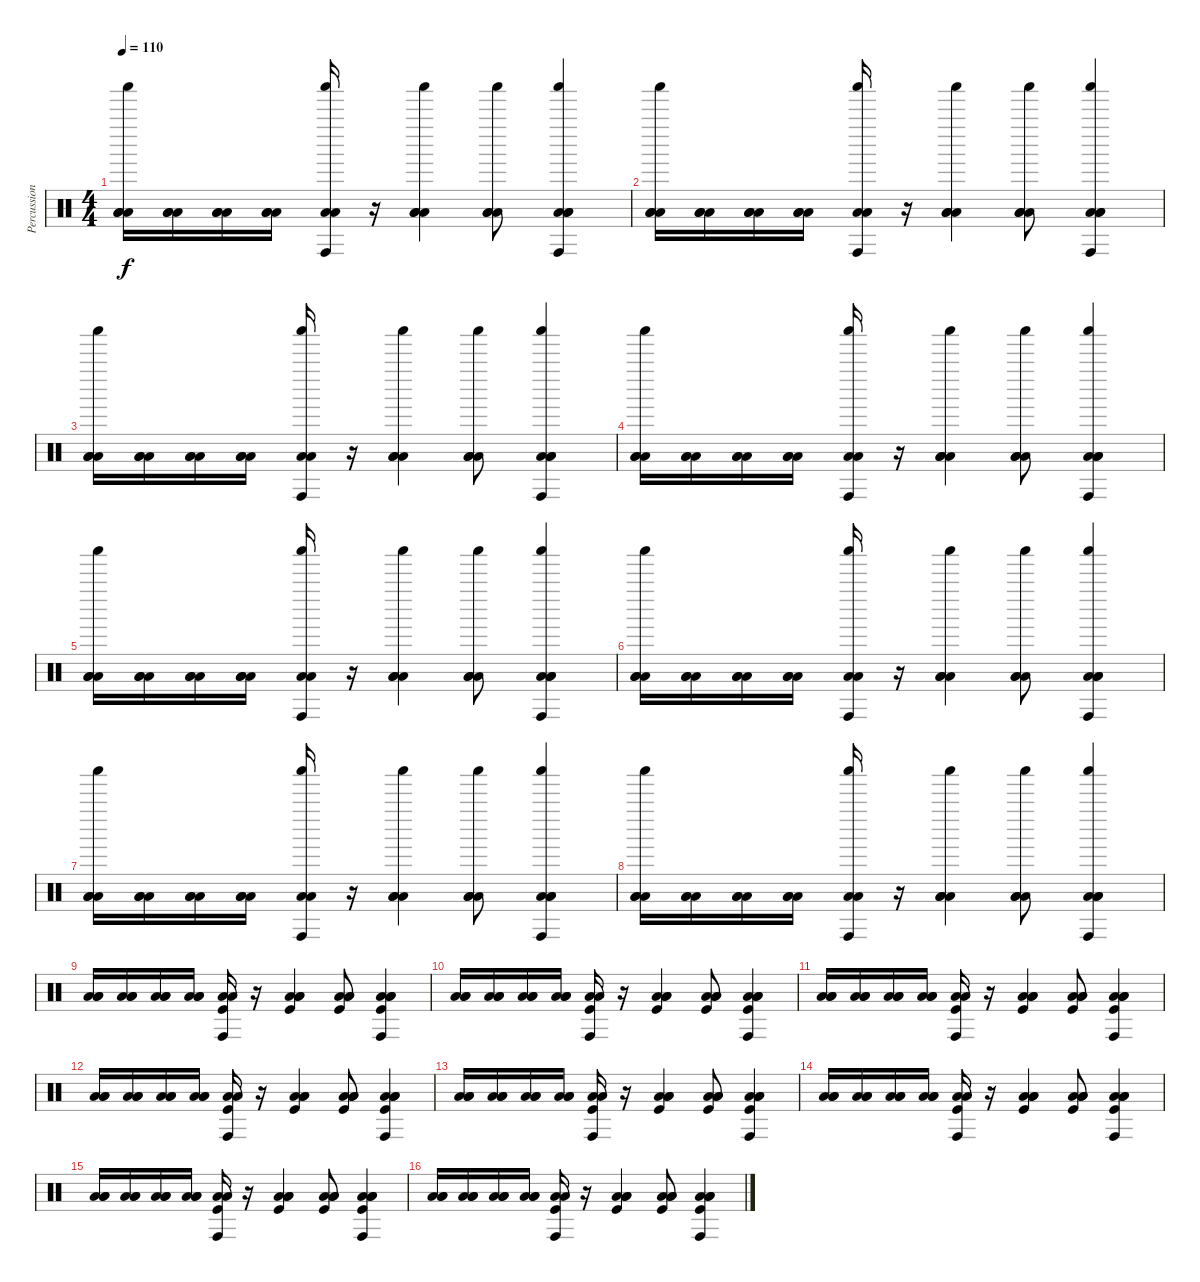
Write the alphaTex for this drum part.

\track ("Percussion 1" "Percussion") {instrument percussion}
\staff {score}
\articulation defaults
\ts (4 4)
\tempo 110
\clef neutral
\ks c
("Low Floor Tom (hit)" "Low Floor Tom (hit)" "Low Tom (hit)" "Shaker (hit)").16{dy f} ("Low Floor Tom (hit)" "Low Floor Tom (hit)" "Low Tom (hit)").16 ("Low Floor Tom (hit)" "Low Floor Tom (hit)" "Low Tom (hit)").16 ("Low Floor Tom (hit)" "Low Floor Tom (hit)" "Low Tom (hit)").16 ("Low Floor Tom (hit)" "Low Floor Tom (hit)" "Conga high (hit)" "Shaker (hit)").16 r.16 ("Low Floor Tom (hit)" "Low Floor Tom (hit)" "Low Tom (hit)" "Shaker (hit)").4 ("Low Floor Tom (hit)" "Low Tom (hit)" "Low Floor Tom (hit)" "Shaker (hit)").8 ("Low Floor Tom (hit)" "Low Tom (hit)" "Low Floor Tom (hit)" "Conga high (hit)" "Shaker (hit)").4 |
("Low Floor Tom (hit)" "Low Floor Tom (hit)" "Low Tom (hit)" "Shaker (hit)").16 ("Low Floor Tom (hit)" "Low Floor Tom (hit)" "Low Tom (hit)").16 ("Low Floor Tom (hit)" "Low Floor Tom (hit)" "Low Tom (hit)").16 ("Low Floor Tom (hit)" "Low Floor Tom (hit)" "Low Tom (hit)").16 ("Low Floor Tom (hit)" "Low Floor Tom (hit)" "Conga high (hit)" "Shaker (hit)").16 r.16 ("Low Floor Tom (hit)" "Low Floor Tom (hit)" "Low Tom (hit)" "Shaker (hit)").4 ("Low Floor Tom (hit)" "Low Tom (hit)" "Low Floor Tom (hit)" "Shaker (hit)").8 ("Low Floor Tom (hit)" "Low Tom (hit)" "Low Floor Tom (hit)" "Conga high (hit)" "Shaker (hit)").4 |
("Low Floor Tom (hit)" "Low Floor Tom (hit)" "Low Tom (hit)" "Shaker (hit)").16 ("Low Floor Tom (hit)" "Low Floor Tom (hit)" "Low Tom (hit)").16 ("Low Floor Tom (hit)" "Low Floor Tom (hit)" "Low Tom (hit)").16 ("Low Floor Tom (hit)" "Low Floor Tom (hit)" "Low Tom (hit)").16 ("Low Floor Tom (hit)" "Low Floor Tom (hit)" "Conga high (hit)" "Shaker (hit)").16 r.16 ("Low Floor Tom (hit)" "Low Floor Tom (hit)" "Low Tom (hit)" "Shaker (hit)").4 ("Low Floor Tom (hit)" "Low Tom (hit)" "Low Floor Tom (hit)" "Shaker (hit)").8 ("Low Floor Tom (hit)" "Low Tom (hit)" "Low Floor Tom (hit)" "Conga high (hit)" "Shaker (hit)").4 |
("Low Floor Tom (hit)" "Low Floor Tom (hit)" "Low Tom (hit)" "Shaker (hit)").16 ("Low Floor Tom (hit)" "Low Floor Tom (hit)" "Low Tom (hit)").16 ("Low Floor Tom (hit)" "Low Floor Tom (hit)" "Low Tom (hit)").16 ("Low Floor Tom (hit)" "Low Floor Tom (hit)" "Low Tom (hit)").16 ("Low Floor Tom (hit)" "Low Floor Tom (hit)" "Conga high (hit)" "Shaker (hit)").16 r.16 ("Low Floor Tom (hit)" "Low Floor Tom (hit)" "Low Tom (hit)" "Shaker (hit)").4 ("Low Floor Tom (hit)" "Low Tom (hit)" "Low Floor Tom (hit)" "Shaker (hit)").8 ("Low Floor Tom (hit)" "Low Tom (hit)" "Low Floor Tom (hit)" "Conga high (hit)" "Shaker (hit)").4 |
("Low Floor Tom (hit)" "Low Floor Tom (hit)" "Low Tom (hit)" "Shaker (hit)").16 ("Low Floor Tom (hit)" "Low Floor Tom (hit)" "Low Tom (hit)").16 ("Low Floor Tom (hit)" "Low Floor Tom (hit)" "Low Tom (hit)").16 ("Low Floor Tom (hit)" "Low Floor Tom (hit)" "Low Tom (hit)").16 ("Low Floor Tom (hit)" "Low Floor Tom (hit)" "Conga high (hit)" "Shaker (hit)").16 r.16 ("Low Floor Tom (hit)" "Low Floor Tom (hit)" "Low Tom (hit)" "Shaker (hit)").4 ("Low Floor Tom (hit)" "Low Tom (hit)" "Low Floor Tom (hit)" "Shaker (hit)").8 ("Low Floor Tom (hit)" "Low Tom (hit)" "Low Floor Tom (hit)" "Conga high (hit)" "Shaker (hit)").4 |
("Low Floor Tom (hit)" "Low Floor Tom (hit)" "Low Tom (hit)" "Shaker (hit)").16 ("Low Floor Tom (hit)" "Low Floor Tom (hit)" "Low Tom (hit)").16 ("Low Floor Tom (hit)" "Low Floor Tom (hit)" "Low Tom (hit)").16 ("Low Floor Tom (hit)" "Low Floor Tom (hit)" "Low Tom (hit)").16 ("Low Floor Tom (hit)" "Low Floor Tom (hit)" "Conga high (hit)" "Shaker (hit)").16 r.16 ("Low Floor Tom (hit)" "Low Floor Tom (hit)" "Low Tom (hit)" "Shaker (hit)").4 ("Low Floor Tom (hit)" "Low Tom (hit)" "Low Floor Tom (hit)" "Shaker (hit)").8 ("Low Floor Tom (hit)" "Low Tom (hit)" "Low Floor Tom (hit)" "Conga high (hit)" "Shaker (hit)").4 |
("Low Floor Tom (hit)" "Low Floor Tom (hit)" "Low Tom (hit)" "Shaker (hit)").16 ("Low Floor Tom (hit)" "Low Floor Tom (hit)" "Low Tom (hit)").16 ("Low Floor Tom (hit)" "Low Floor Tom (hit)" "Low Tom (hit)").16 ("Low Floor Tom (hit)" "Low Floor Tom (hit)" "Low Tom (hit)").16 ("Low Floor Tom (hit)" "Low Floor Tom (hit)" "Conga high (hit)" "Shaker (hit)").16 r.16 ("Low Floor Tom (hit)" "Low Floor Tom (hit)" "Low Tom (hit)" "Shaker (hit)").4 ("Low Floor Tom (hit)" "Low Tom (hit)" "Low Floor Tom (hit)" "Shaker (hit)").8 ("Low Floor Tom (hit)" "Low Tom (hit)" "Low Floor Tom (hit)" "Conga high (hit)" "Shaker (hit)").4 |
("Low Floor Tom (hit)" "Low Floor Tom (hit)" "Low Tom (hit)" "Shaker (hit)").16 ("Low Floor Tom (hit)" "Low Floor Tom (hit)" "Low Tom (hit)").16 ("Low Floor Tom (hit)" "Low Floor Tom (hit)" "Low Tom (hit)").16 ("Low Floor Tom (hit)" "Low Floor Tom (hit)" "Low Tom (hit)").16 ("Low Floor Tom (hit)" "Low Floor Tom (hit)" "Conga high (hit)" "Shaker (hit)").16 r.16 ("Low Floor Tom (hit)" "Low Floor Tom (hit)" "Low Tom (hit)" "Shaker (hit)").4 ("Low Floor Tom (hit)" "Low Tom (hit)" "Low Floor Tom (hit)" "Shaker (hit)").8 ("Low Floor Tom (hit)" "Low Tom (hit)" "Low Floor Tom (hit)" "Conga high (hit)" "Shaker (hit)").4 |
("Low Floor Tom (hit)" "Low Floor Tom (hit)" "Low Tom (hit)").16 ("Low Floor Tom (hit)" "Low Floor Tom (hit)" "Low Tom (hit)").16 ("Low Floor Tom (hit)" "Low Floor Tom (hit)" "Low Tom (hit)").16 ("Low Floor Tom (hit)" "Low Floor Tom (hit)" "Low Tom (hit)").16 ("Low Floor Tom (hit)" "Low Floor Tom (hit)" "Conga high (hit)" "Kick (hit)").16 r.16 ("Low Floor Tom (hit)" "Low Floor Tom (hit)" "Low Tom (hit)" "Kick (hit)").4 ("Low Floor Tom (hit)" "Low Tom (hit)" "Low Floor Tom (hit)" "Kick (hit)").8 ("Low Floor Tom (hit)" "Low Tom (hit)" "Low Floor Tom (hit)" "Conga high (hit)" "Kick (hit)").4 |
("Low Floor Tom (hit)" "Low Floor Tom (hit)" "Low Tom (hit)").16 ("Low Floor Tom (hit)" "Low Floor Tom (hit)" "Low Tom (hit)").16 ("Low Floor Tom (hit)" "Low Floor Tom (hit)" "Low Tom (hit)").16 ("Low Floor Tom (hit)" "Low Floor Tom (hit)" "Low Tom (hit)").16 ("Low Floor Tom (hit)" "Low Floor Tom (hit)" "Conga high (hit)" "Kick (hit)").16 r.16 ("Low Floor Tom (hit)" "Low Floor Tom (hit)" "Low Tom (hit)" "Kick (hit)").4 ("Low Floor Tom (hit)" "Low Tom (hit)" "Low Floor Tom (hit)" "Kick (hit)").8 ("Low Floor Tom (hit)" "Low Tom (hit)" "Low Floor Tom (hit)" "Conga high (hit)" "Kick (hit)").4 |
("Low Floor Tom (hit)" "Low Floor Tom (hit)" "Low Tom (hit)").16 ("Low Floor Tom (hit)" "Low Floor Tom (hit)" "Low Tom (hit)").16 ("Low Floor Tom (hit)" "Low Floor Tom (hit)" "Low Tom (hit)").16 ("Low Floor Tom (hit)" "Low Floor Tom (hit)" "Low Tom (hit)").16 ("Low Floor Tom (hit)" "Low Floor Tom (hit)" "Conga high (hit)" "Kick (hit)").16 r.16 ("Low Floor Tom (hit)" "Low Floor Tom (hit)" "Low Tom (hit)" "Kick (hit)").4 ("Low Floor Tom (hit)" "Low Tom (hit)" "Low Floor Tom (hit)" "Kick (hit)").8 ("Low Floor Tom (hit)" "Low Tom (hit)" "Low Floor Tom (hit)" "Conga high (hit)" "Kick (hit)").4 |
("Low Floor Tom (hit)" "Low Floor Tom (hit)" "Low Tom (hit)").16 ("Low Floor Tom (hit)" "Low Floor Tom (hit)" "Low Tom (hit)").16 ("Low Floor Tom (hit)" "Low Floor Tom (hit)" "Low Tom (hit)").16 ("Low Floor Tom (hit)" "Low Floor Tom (hit)" "Low Tom (hit)").16 ("Low Floor Tom (hit)" "Low Floor Tom (hit)" "Conga high (hit)" "Kick (hit)").16 r.16 ("Low Floor Tom (hit)" "Low Floor Tom (hit)" "Low Tom (hit)" "Kick (hit)").4 ("Low Floor Tom (hit)" "Low Tom (hit)" "Low Floor Tom (hit)" "Kick (hit)").8 ("Low Floor Tom (hit)" "Low Tom (hit)" "Low Floor Tom (hit)" "Conga high (hit)" "Kick (hit)").4 |
("Low Floor Tom (hit)" "Low Floor Tom (hit)" "Low Tom (hit)").16 ("Low Floor Tom (hit)" "Low Floor Tom (hit)" "Low Tom (hit)").16 ("Low Floor Tom (hit)" "Low Floor Tom (hit)" "Low Tom (hit)").16 ("Low Floor Tom (hit)" "Low Floor Tom (hit)" "Low Tom (hit)").16 ("Low Floor Tom (hit)" "Low Floor Tom (hit)" "Conga high (hit)" "Kick (hit)").16 r.16 ("Low Floor Tom (hit)" "Low Floor Tom (hit)" "Low Tom (hit)" "Kick (hit)").4 ("Low Floor Tom (hit)" "Low Tom (hit)" "Low Floor Tom (hit)" "Kick (hit)").8 ("Low Floor Tom (hit)" "Low Tom (hit)" "Low Floor Tom (hit)" "Conga high (hit)" "Kick (hit)").4 |
("Low Floor Tom (hit)" "Low Floor Tom (hit)" "Low Tom (hit)").16 ("Low Floor Tom (hit)" "Low Floor Tom (hit)" "Low Tom (hit)").16 ("Low Floor Tom (hit)" "Low Floor Tom (hit)" "Low Tom (hit)").16 ("Low Floor Tom (hit)" "Low Floor Tom (hit)" "Low Tom (hit)").16 ("Low Floor Tom (hit)" "Low Floor Tom (hit)" "Conga high (hit)" "Kick (hit)").16 r.16 ("Low Floor Tom (hit)" "Low Floor Tom (hit)" "Low Tom (hit)" "Kick (hit)").4 ("Low Floor Tom (hit)" "Low Tom (hit)" "Low Floor Tom (hit)" "Kick (hit)").8 ("Low Floor Tom (hit)" "Low Tom (hit)" "Low Floor Tom (hit)" "Conga high (hit)" "Kick (hit)").4 |
("Low Floor Tom (hit)" "Low Floor Tom (hit)" "Low Tom (hit)").16 ("Low Floor Tom (hit)" "Low Floor Tom (hit)" "Low Tom (hit)").16 ("Low Floor Tom (hit)" "Low Floor Tom (hit)" "Low Tom (hit)").16 ("Low Floor Tom (hit)" "Low Floor Tom (hit)" "Low Tom (hit)").16 ("Low Floor Tom (hit)" "Low Floor Tom (hit)" "Conga high (hit)" "Kick (hit)").16 r.16 ("Low Floor Tom (hit)" "Low Floor Tom (hit)" "Low Tom (hit)" "Kick (hit)").4 ("Low Floor Tom (hit)" "Low Tom (hit)" "Low Floor Tom (hit)" "Kick (hit)").8 ("Low Floor Tom (hit)" "Low Tom (hit)" "Low Floor Tom (hit)" "Conga high (hit)" "Kick (hit)").4 |
("Low Floor Tom (hit)" "Low Floor Tom (hit)" "Low Tom (hit)").16 ("Low Floor Tom (hit)" "Low Floor Tom (hit)" "Low Tom (hit)").16 ("Low Floor Tom (hit)" "Low Floor Tom (hit)" "Low Tom (hit)").16 ("Low Floor Tom (hit)" "Low Floor Tom (hit)" "Low Tom (hit)").16 ("Low Floor Tom (hit)" "Low Floor Tom (hit)" "Conga high (hit)" "Kick (hit)").16 r.16 ("Low Floor Tom (hit)" "Low Floor Tom (hit)" "Low Tom (hit)" "Kick (hit)").4 ("Low Floor Tom (hit)" "Low Tom (hit)" "Low Floor Tom (hit)" "Kick (hit)").8 ("Low Floor Tom (hit)" "Low Tom (hit)" "Low Floor Tom (hit)" "Conga high (hit)" "Kick (hit)").4
